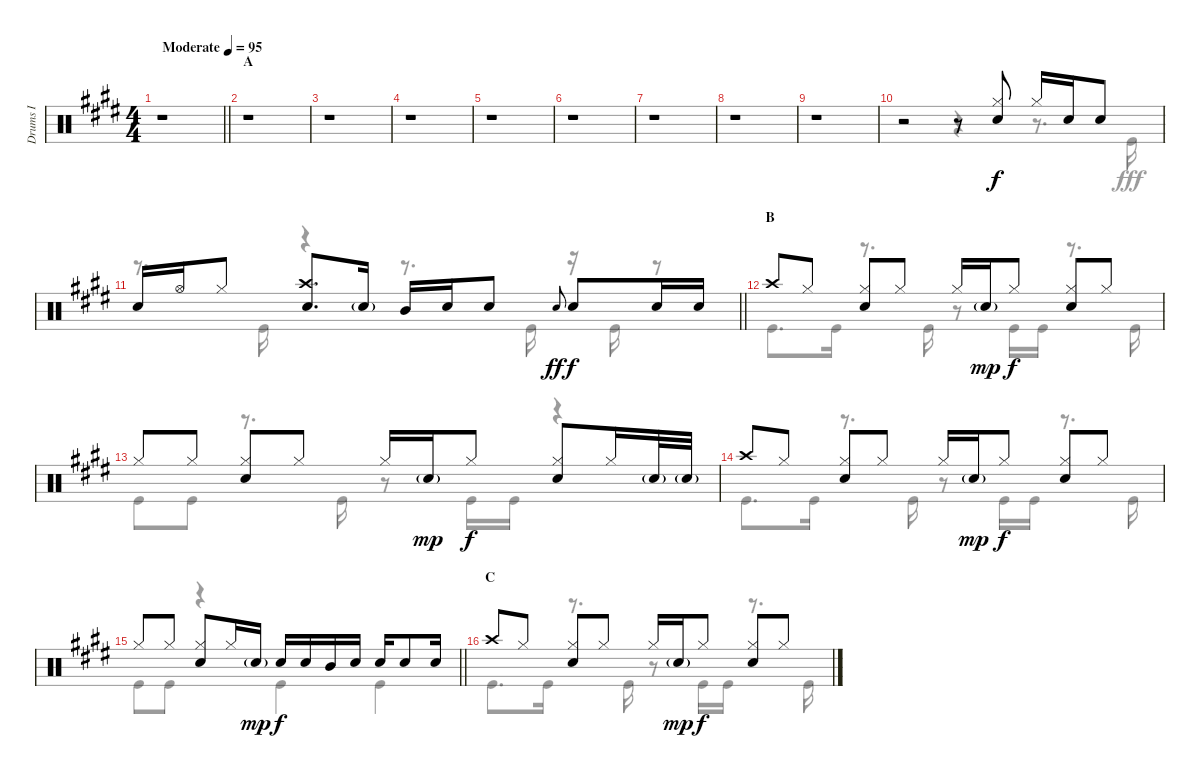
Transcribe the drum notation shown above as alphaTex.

\track ("Drums I" "Drums I") {instrument percussion}
\staff {score}
\articulation defaults
\voice
\ts (4 4)
\tempo (95 "Moderate")
\clef neutral
\barLineRight lightlight
\ks e
r.1{dy f} |
\section ("" "A")
r.1 |
r.1 |
r.1 |
r.1 |
r.1 |
r.1 |
r.1 |
r.1 |
r.2 r.8 ("Snare (hit) 2" "Hi-Hat (closed)").8 "Hi-Hat (closed)".16 "Snare (hit) 2".16 "Snare (hit) 2".8 |
\barLineRight lightlight "Snare (hit) 2".16 "Hi-Hat (open)".16 "Hi-Hat (closed)".8
("Crash high (hit)" "Snare (hit) 2").8{d} "Snare (hit) 2"{g}.16 "Mid Tom (hit)".16 "Snare (hit) 2".16 "Snare (hit) 2".8 "Snare (hit) 2".8{gr onbeat dy ff} "Snare (hit) 2".8{dy f} "Snare (hit) 2".16 "Snare (hit) 2".16 |
\section ("" "B")
"Crash high (hit)".8 "Hi-Hat (closed)".8 ("Hi-Hat (closed)" "Snare (hit) 2").8 "Hi-Hat (closed)".8 "Hi-Hat (closed)".16 "Snare (hit) 2"{g}.16{dy mp} "Hi-Hat (closed)".8{dy f} ("Snare (hit) 2" "Hi-Hat (closed)").8 "Hi-Hat (closed)".8 |
"Hi-Hat (closed)".8 "Hi-Hat (closed)".8 ("Hi-Hat (closed)" "Snare (hit) 2").8 "Hi-Hat (closed)".8 "Hi-Hat (closed)".16 "Snare (hit) 2"{g}.16{dy mp} "Hi-Hat (closed)".8{dy f} ("Hi-Hat (closed)" "Snare (hit) 2").8 "Hi-Hat (closed)".16 "Snare (hit) 2"{g}.32 "Snare (hit) 2"{g}.32 |
"Crash high (hit)".8 "Hi-Hat (closed)".8 ("Hi-Hat (closed)" "Snare (hit) 2").8 "Hi-Hat (closed)".8 "Hi-Hat (closed)".16 "Snare (hit) 2"{g}.16{dy mp} "Hi-Hat (closed)".8{dy f} ("Snare (hit) 2" "Hi-Hat (closed)").8 "Hi-Hat (closed)".8 |
\barLineRight lightlight "Hi-Hat (closed)".8 "Hi-Hat (closed)".8
("Hi-Hat (closed)" "Snare (hit) 2").8 "Hi-Hat (closed)".16 "Snare (hit) 2"{g}.16{dy mp} "Snare (hit) 2".16{dy f} "Snare (hit) 2".16 "Mid Tom (hit)".16 "Snare (hit) 2".16 "Snare (hit) 2".16 "Snare (hit) 2".8 "Snare (hit) 2".16 |
\section ("" "C")
"Crash high (hit)".8 "Hi-Hat (closed)".8 ("Hi-Hat (closed)" "Snare (hit) 2").8 "Hi-Hat (closed)".8 "Hi-Hat (closed)".16 "Snare (hit) 2"{g}.16{dy mp} "Hi-Hat (closed)".8{dy f} ("Snare (hit) 2" "Hi-Hat (closed)").8 "Hi-Hat (closed)".8
\voice
\clef neutral
\ottava regular
\simile none
\barLineRight lightlight
\ks e
r.1{dy fff} |
r.1 |
r.1 |
r.1 |
r.1 |
r.1 |
r.1 |
r.1 |
r.1 |
r.2 r.4 r.8{d} "Kick (hit)".16 |
\barLineRight lightlight
r.8{d} "Kick (hit)".16 r.4 r.8{d} "Kick (hit)".16 r.16 "Kick (hit)".16 r.8 |
"Kick (hit)".8{d} "Kick (hit)".16 r.8{d} "Kick (hit)".16 r.8 "Kick (hit)".16 "Kick (hit)".16 r.8{d} "Kick (hit)".16 |
"Kick (hit)".8 "Kick (hit)".8 r.8{d} "Kick (hit)".16 r.8 "Kick (hit)".16 "Kick (hit)".16 r.4 |
"Kick (hit)".8{d} "Kick (hit)".16 r.8{d} "Kick (hit)".16 r.8 "Kick (hit)".16 "Kick (hit)".16 r.8{d} "Kick (hit)".16 |
\barLineRight lightlight "Kick (hit)".8 "Kick (hit)".8
r.4 "Kick (hit)".4 "Kick (hit)".4 |
"Kick (hit)".8{d} "Kick (hit)".16 r.8{d} "Kick (hit)".16 r.8 "Kick (hit)".16 "Kick (hit)".16 r.8{d} "Kick (hit)".16
